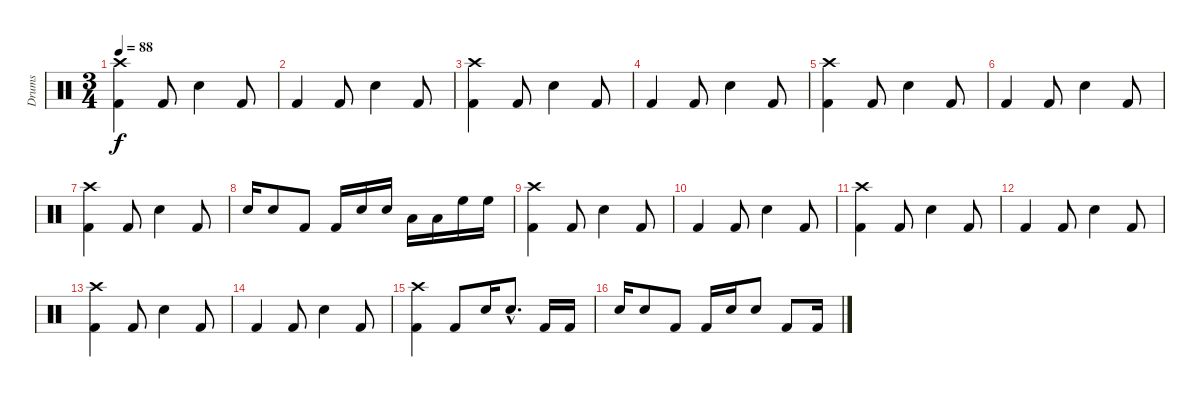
\track ("Drums" "Drums") {instrument percussion}
\staff {score}
\articulation defaults
\ts (3 4)
\tempo 88
\clef neutral
\ks c
("Crash high (hit)" "Kick (hit) 2").4{dy f} "Kick (hit) 2".8 "Snare (hit) 2".4 "Kick (hit) 2".8 |
"Kick (hit) 2".4 "Kick (hit) 2".8 "Snare (hit) 2".4 "Kick (hit) 2".8 |
("Crash high (hit)" "Kick (hit) 2").4 "Kick (hit) 2".8 "Snare (hit) 2".4 "Kick (hit) 2".8 |
"Kick (hit) 2".4 "Kick (hit) 2".8 "Snare (hit) 2".4 "Kick (hit) 2".8 |
("Crash high (hit)" "Kick (hit) 2").4 "Kick (hit) 2".8 "Snare (hit) 2".4 "Kick (hit) 2".8 |
"Kick (hit) 2".4 "Kick (hit) 2".8 "Snare (hit) 2".4 "Kick (hit) 2".8 |
("Crash high (hit)" "Kick (hit) 2").4 "Kick (hit) 2".8 "Snare (hit) 2".4 "Kick (hit) 2".8 |
"Snare (hit) 2".16 "Snare (hit) 2".8 "Kick (hit) 2".8 "Kick (hit) 2".16 "Snare (hit) 2".16 "Snare (hit) 2".16 "Low Tom (hit)".16 "Low Tom (hit)".16 "High Floor Tom (hit)".16 "High Floor Tom (hit)".16 |
("Crash high (hit)" "Kick (hit) 2").4 "Kick (hit) 2".8 "Snare (hit) 2".4 "Kick (hit) 2".8 |
"Kick (hit) 2".4 "Kick (hit) 2".8 "Snare (hit) 2".4 "Kick (hit) 2".8 |
("Crash high (hit)" "Kick (hit) 2").4 "Kick (hit) 2".8 "Snare (hit) 2".4 "Kick (hit) 2".8 |
"Kick (hit) 2".4 "Kick (hit) 2".8 "Snare (hit) 2".4 "Kick (hit) 2".8 |
("Crash high (hit)" "Kick (hit) 2").4 "Kick (hit) 2".8 "Snare (hit) 2".4 "Kick (hit) 2".8 |
"Kick (hit) 2".4 "Kick (hit) 2".8 "Snare (hit) 2".4 "Kick (hit) 2".8 |
("Crash high (hit)" "Kick (hit) 2").4 "Kick (hit) 2".8 "Snare (hit) 2".16 "Snare (hit) 2"{hac}.8{d} "Kick (hit) 2".16 "Kick (hit) 2".16 |
"Snare (hit) 2".16 "Snare (hit) 2".8 "Kick (hit) 2".8 "Kick (hit) 2".16 "Snare (hit) 2".16 "Snare (hit) 2".8 "Kick (hit) 2".8 "Kick (hit) 2".16
